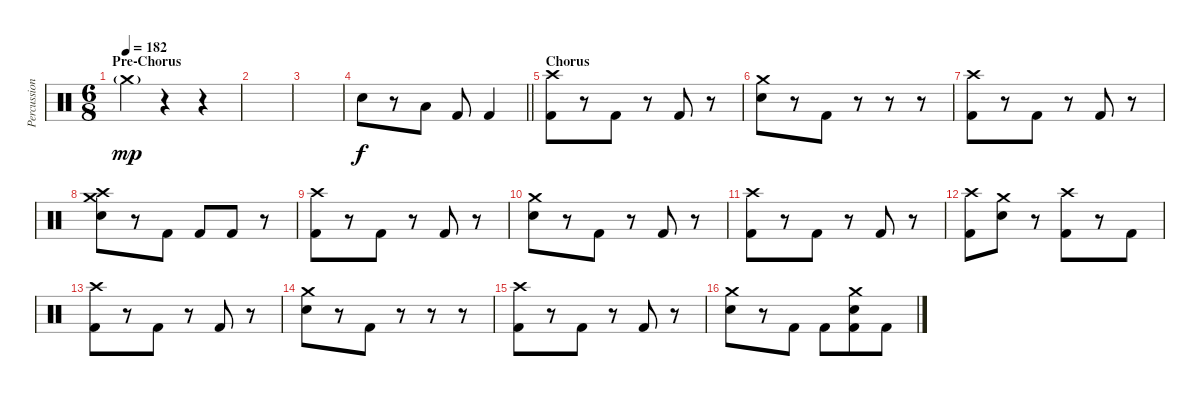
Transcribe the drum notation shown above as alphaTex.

\track ("Percussion" "Percussion") {instrument percussion}
\staff {score}
\articulation defaults
\ts (6 8)
\section ("" "Pre-Chorus")
\tempo 182
\clef neutral
\ks c "Crash medium (hit)"{g}.4{dy mp}
r.4 r.4 |
|
|
\barLineRight lightlight "Snare (hit) 2".8{dy f}
r.8 "Low Tom (hit)".8 "Kick (hit) 2".8 "Kick (hit) 2".4 |
\section ("" "Chorus")
("Kick (hit) 2" "Crash high (hit)").8 r.8 "Kick (hit) 2".8 r.8 "Kick (hit) 2".8 r.8 |
("Snare (hit) 2" "Crash medium (hit)").8 r.8 "Kick (hit) 2".8 r.8 r.8 r.8 |
("Kick (hit) 2" "Crash high (hit)").8 r.8 "Kick (hit) 2".8 r.8 "Kick (hit) 2".8 r.8 |
("Snare (hit) 2" "Crash high (hit)" "Crash medium (hit)").8 r.8 "Kick (hit) 2".8 "Kick (hit) 2".8 "Kick (hit) 2".8 r.8 |
("Kick (hit) 2" "Crash high (hit)").8 r.8 "Kick (hit) 2".8 r.8 "Kick (hit) 2".8 r.8 |
("Snare (hit) 2" "Crash medium (hit)").8 r.8 "Kick (hit) 2".8 r.8 "Kick (hit) 2".8 r.8 |
("Kick (hit) 2" "Crash high (hit)").8 r.8 "Kick (hit) 2".8 r.8 "Kick (hit) 2".8 r.8 |
("Kick (hit) 2" "Crash high (hit)").8 ("Snare (hit) 2" "Crash medium (hit)").8 r.8 ("Kick (hit) 2" "Crash high (hit)").8 r.8 "Kick (hit) 2".8 |
("Kick (hit) 2" "Crash high (hit)").8 r.8 "Kick (hit) 2".8 r.8 "Kick (hit) 2".8 r.8 |
("Snare (hit) 2" "Crash medium (hit)").8 r.8 "Kick (hit) 2".8 r.8 r.8 r.8 |
("Kick (hit) 2" "Crash high (hit)").8 r.8 "Kick (hit) 2".8 r.8 "Kick (hit) 2".8 r.8 |
("Snare (hit) 2" "Crash medium (hit)").8 r.8 "Kick (hit) 2".8 "Kick (hit) 2".8 ("Kick (hit) 2" "Snare (hit) 2" "Crash medium (hit)").8 "Kick (hit) 2".8
